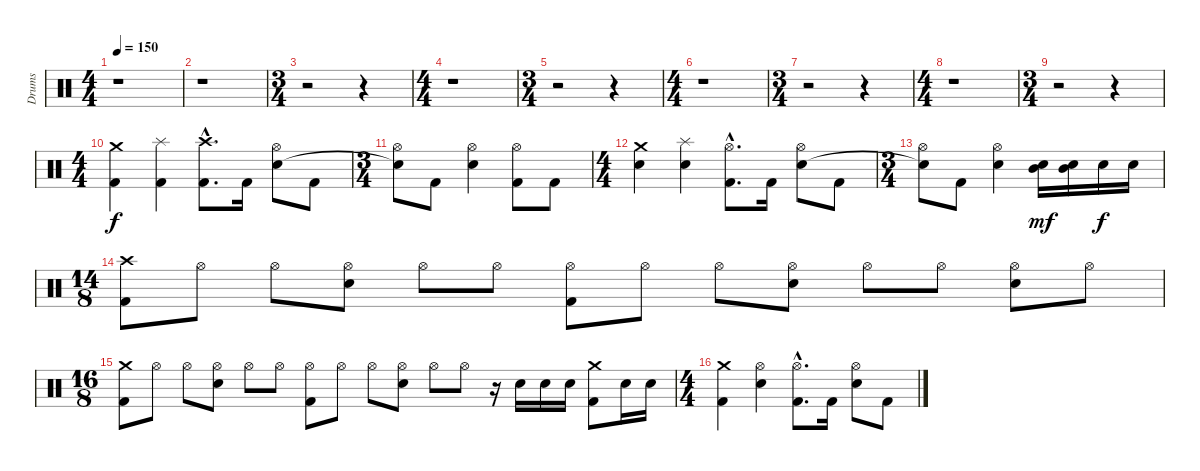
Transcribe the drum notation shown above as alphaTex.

\track ("Drums" "Drums") {instrument percussion}
\staff {score}
\articulation defaults
\ts (4 4)
\tempo 150
\clef neutral
\ks c
r.1{dy f} |
r.1 |
\ts (3 4)
r.2 r.4 |
\ts (4 4)
r.1 |
\ts (3 4)
r.2 r.4 |
\ts (4 4)
r.1 |
\ts (3 4)
r.2 r.4 |
\ts (4 4)
r.1 |
\ts (3 4)
r.2 r.4 |
\ts (4 4)
("Crash medium (hit)" "Kick (hit) 2").4 ("Splash (hit)" "Kick (hit) 2").4 ("Crash high (hit)"{hac} "Kick (hit) 2"{hac}).8{d} "Kick (hit) 2".16 ("Hi-Hat (open)" "Electric Snare (hit)").8 "Kick (hit) 2".8 |
\ts (3 4)
("Hi-Hat (open)" "Snare (hit)"{t}).8 "Kick (hit) 2".8 ("Hi-Hat (open)" "Electric Snare (hit)").4 ("Hi-Hat (open)" "Kick (hit) 2").8 "Kick (hit) 2".8 |
\ts (4 4)
("Crash medium (hit)" "Electric Snare (hit)").4 ("Splash (hit)" "Electric Snare (hit)").4 ("Hi-Hat (open)"{hac} "Kick (hit) 2"{hac}).8{d} "Kick (hit) 2".16 ("Hi-Hat (open)" "Electric Snare (hit)").8 "Kick (hit) 2".8 |
\ts (3 4)
("Hi-Hat (open)" "Snare (hit)"{t}).8 "Kick (hit) 2".8 ("Hi-Hat (open)" "Electric Snare (hit)").4 ("Mid Tom (hit)" "Electric Snare (hit)").16{dy mf} ("Mid Tom (hit)" "Electric Snare (hit)").16 "Electric Snare (hit)".16{dy f} "Electric Snare (hit)".16 |
\ts (14 8)
("Crash high (hit)" "Kick (hit) 2").8 "Hi-Hat (open)".8 "Hi-Hat (open)".8 ("Hi-Hat (open)" "Electric Snare (hit)").8 "Hi-Hat (open)".8 "Hi-Hat (open)".8 ("Hi-Hat (open)" "Kick (hit) 2").8 "Hi-Hat (open)".8 "Hi-Hat (open)".8 ("Hi-Hat (open)" "Electric Snare (hit)").8 "Hi-Hat (open)".8 "Hi-Hat (open)".8 ("Hi-Hat (open)" "Electric Snare (hit)").8 "Hi-Hat (open)".8 |
\ts (16 8)
("Crash medium (hit)" "Kick (hit) 2").8 "Hi-Hat (open)".8 "Hi-Hat (open)".8 ("Hi-Hat (open)" "Electric Snare (hit)").8 "Hi-Hat (open)".8 "Hi-Hat (open)".8 ("Hi-Hat (open)" "Kick (hit) 2").8 "Hi-Hat (open)".8 "Hi-Hat (open)".8 ("Hi-Hat (open)" "Electric Snare (hit)").8 "Hi-Hat (open)".8 "Hi-Hat (open)".8 r.16 "Electric Snare (hit)".16 "Electric Snare (hit)".16 "Electric Snare (hit)".16 ("Crash medium (hit)" "Kick (hit) 2").8 "Electric Snare (hit)".16 "Electric Snare (hit)".16 |
\ts (4 4)
("Crash medium (hit)" "Kick (hit) 2").4 ("Hi-Hat (open)" "Electric Snare (hit)").4 ("Hi-Hat (open)"{hac} "Kick (hit) 2"{hac}).8{d} "Kick (hit) 2".16 ("Hi-Hat (open)" "Electric Snare (hit)").8 "Kick (hit) 2".8
